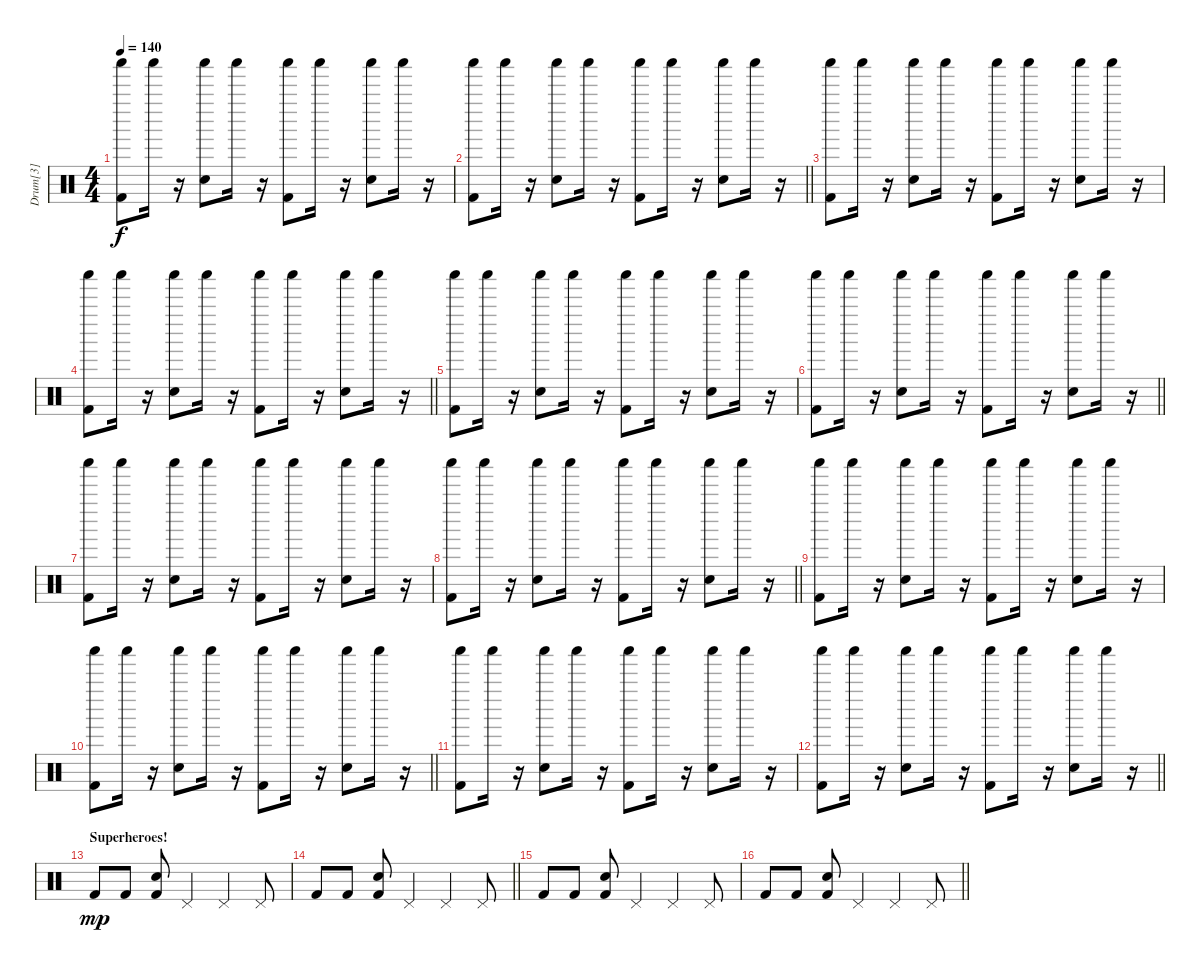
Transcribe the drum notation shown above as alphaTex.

\track ("Drum[3]" "Drum[3]") {instrument percussion}
\staff {score}
\articulation defaults
\ts (4 4)
\tempo 140
\clef neutral
\ks c
("Kick (hit) 2" "Shaker (hit)").8{dy f} "Shaker (hit)".16 r.16 ("Electric Snare (hit)" "Shaker (hit)").8 "Shaker (hit)".16 r.16 ("Kick (hit) 2" "Shaker (hit)").8 "Shaker (hit)".16 r.16 ("Electric Snare (hit)" "Shaker (hit)").8 "Shaker (hit)".16 r.16 |
\barLineRight lightlight
("Kick (hit) 2" "Shaker (hit)").8 "Shaker (hit)".16 r.16 ("Electric Snare (hit)" "Shaker (hit)").8 "Shaker (hit)".16 r.16 ("Kick (hit) 2" "Shaker (hit)").8 "Shaker (hit)".16 r.16 ("Electric Snare (hit)" "Shaker (hit)").8 "Shaker (hit)".16 r.16 |
("Kick (hit) 2" "Shaker (hit)").8 "Shaker (hit)".16 r.16 ("Electric Snare (hit)" "Shaker (hit)").8 "Shaker (hit)".16 r.16 ("Kick (hit) 2" "Shaker (hit)").8 "Shaker (hit)".16 r.16 ("Electric Snare (hit)" "Shaker (hit)").8 "Shaker (hit)".16 r.16 |
\barLineRight lightlight
("Kick (hit) 2" "Shaker (hit)").8 "Shaker (hit)".16 r.16 ("Electric Snare (hit)" "Shaker (hit)").8 "Shaker (hit)".16 r.16 ("Kick (hit) 2" "Shaker (hit)").8 "Shaker (hit)".16 r.16 ("Electric Snare (hit)" "Shaker (hit)").8 "Shaker (hit)".16 r.16 |
("Kick (hit) 2" "Shaker (hit)").8 "Shaker (hit)".16 r.16 ("Electric Snare (hit)" "Shaker (hit)").8 "Shaker (hit)".16 r.16 ("Kick (hit) 2" "Shaker (hit)").8 "Shaker (hit)".16 r.16 ("Electric Snare (hit)" "Shaker (hit)").8 "Shaker (hit)".16 r.16 |
\barLineRight lightlight
("Kick (hit) 2" "Shaker (hit)").8 "Shaker (hit)".16 r.16 ("Electric Snare (hit)" "Shaker (hit)").8 "Shaker (hit)".16 r.16 ("Kick (hit) 2" "Shaker (hit)").8 "Shaker (hit)".16 r.16 ("Electric Snare (hit)" "Shaker (hit)").8 "Shaker (hit)".16 r.16 |
("Kick (hit) 2" "Shaker (hit)").8 "Shaker (hit)".16 r.16 ("Electric Snare (hit)" "Shaker (hit)").8 "Shaker (hit)".16 r.16 ("Kick (hit) 2" "Shaker (hit)").8 "Shaker (hit)".16 r.16 ("Electric Snare (hit)" "Shaker (hit)").8 "Shaker (hit)".16 r.16 |
\barLineRight lightlight
("Kick (hit) 2" "Shaker (hit)").8 "Shaker (hit)".16 r.16 ("Electric Snare (hit)" "Shaker (hit)").8 "Shaker (hit)".16 r.16 ("Kick (hit) 2" "Shaker (hit)").8 "Shaker (hit)".16 r.16 ("Electric Snare (hit)" "Shaker (hit)").8 "Shaker (hit)".16 r.16 |
("Kick (hit) 2" "Shaker (hit)").8 "Shaker (hit)".16 r.16 ("Electric Snare (hit)" "Shaker (hit)").8 "Shaker (hit)".16 r.16 ("Kick (hit) 2" "Shaker (hit)").8 "Shaker (hit)".16 r.16 ("Electric Snare (hit)" "Shaker (hit)").8 "Shaker (hit)".16 r.16 |
\barLineRight lightlight
("Kick (hit) 2" "Shaker (hit)").8 "Shaker (hit)".16 r.16 ("Electric Snare (hit)" "Shaker (hit)").8 "Shaker (hit)".16 r.16 ("Kick (hit) 2" "Shaker (hit)").8 "Shaker (hit)".16 r.16 ("Electric Snare (hit)" "Shaker (hit)").8 "Shaker (hit)".16 r.16 |
("Kick (hit) 2" "Shaker (hit)").8 "Shaker (hit)".16 r.16 ("Electric Snare (hit)" "Shaker (hit)").8 "Shaker (hit)".16 r.16 ("Kick (hit) 2" "Shaker (hit)").8 "Shaker (hit)".16 r.16 ("Electric Snare (hit)" "Shaker (hit)").8 "Shaker (hit)".16 r.16 |
\barLineRight lightlight
("Kick (hit) 2" "Shaker (hit)").8 "Shaker (hit)".16 r.16 ("Electric Snare (hit)" "Shaker (hit)").8 "Shaker (hit)".16 r.16 ("Kick (hit) 2" "Shaker (hit)").8 "Shaker (hit)".16 r.16 ("Electric Snare (hit)" "Shaker (hit)").8 "Shaker (hit)".16 r.16 |
\section ("" "Superheroes!")
"Kick (hit) 2".8{dy mp volume 16} "Kick (hit) 2".8 ("Snare (hit) 2" "Kick (hit) 2").8 "Pedal Hi-Hat (hit)".4 "Pedal Hi-Hat (hit)".4 "Pedal Hi-Hat (hit)".8 |
\barLineRight lightlight "Kick (hit) 2".8 "Kick (hit) 2".8
("Snare (hit) 2" "Kick (hit) 2").8 "Pedal Hi-Hat (hit)".4 "Pedal Hi-Hat (hit)".4 "Pedal Hi-Hat (hit)".8 |
"Kick (hit) 2".8 "Kick (hit) 2".8 ("Snare (hit) 2" "Kick (hit) 2").8 "Pedal Hi-Hat (hit)".4 "Pedal Hi-Hat (hit)".4 "Pedal Hi-Hat (hit)".8 |
\barLineRight lightlight "Kick (hit) 2".8 "Kick (hit) 2".8
("Snare (hit) 2" "Kick (hit) 2").8 "Pedal Hi-Hat (hit)".4 "Pedal Hi-Hat (hit)".4 "Pedal Hi-Hat (hit)".8
